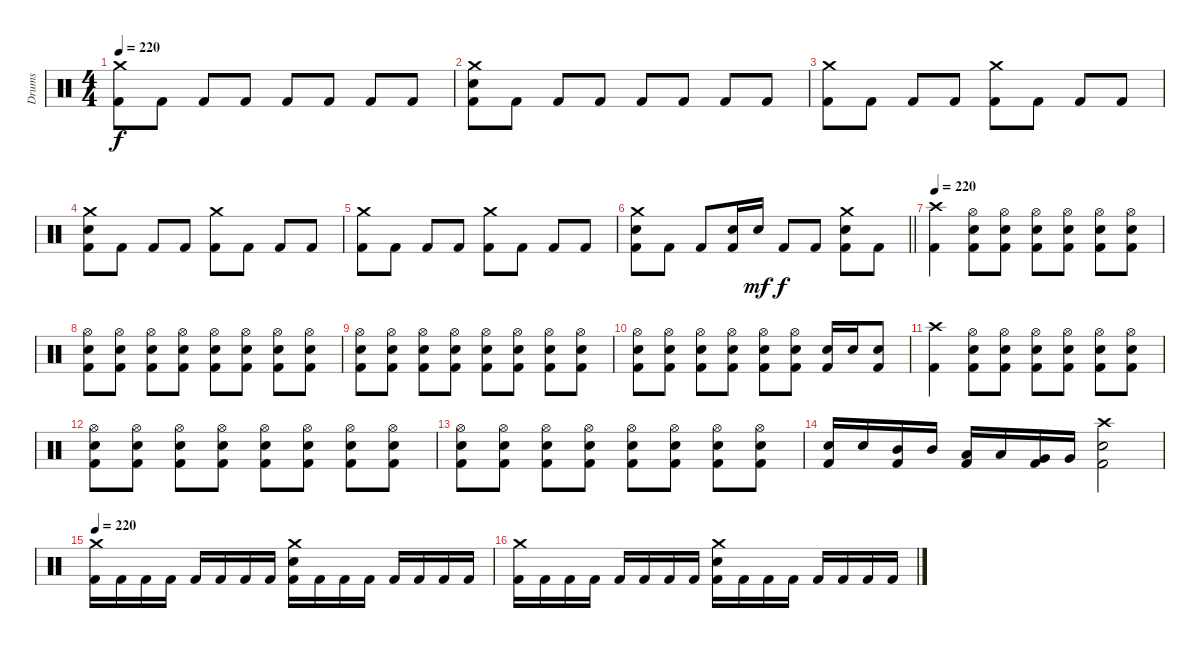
\track ("Drums" "Drums") {instrument percussion}
\staff {score}
\articulation defaults
\ts (4 4)
\tempo 220
\clef neutral
\ks c
("Crash medium (hit)" "Kick (hit) 2").8{dy f} "Kick (hit) 2".8 "Kick (hit) 2".8 "Kick (hit) 2".8 "Kick (hit) 2".8 "Kick (hit) 2".8 "Kick (hit) 2".8 "Kick (hit) 2".8 |
("Crash medium (hit)" "Electric Snare (hit)" "Kick (hit) 2").8 "Kick (hit) 2".8 "Kick (hit) 2".8 "Kick (hit) 2".8 "Kick (hit) 2".8 "Kick (hit) 2".8 "Kick (hit) 2".8 "Kick (hit) 2".8 |
("Crash medium (hit)" "Kick (hit) 2").8 "Kick (hit) 2".8 "Kick (hit) 2".8 "Kick (hit) 2".8 ("Crash medium (hit)" "Kick (hit) 2").8 "Kick (hit) 2".8 "Kick (hit) 2".8 "Kick (hit) 2".8 |
("Crash medium (hit)" "Electric Snare (hit)" "Kick (hit) 2").8 "Kick (hit) 2".8 "Kick (hit) 2".8 "Kick (hit) 2".8 ("Crash medium (hit)" "Kick (hit) 2").8 "Kick (hit) 2".8 "Kick (hit) 2".8 "Kick (hit) 2".8 |
("Crash medium (hit)" "Kick (hit) 2").8 "Kick (hit) 2".8 "Kick (hit) 2".8 "Kick (hit) 2".8 ("Crash medium (hit)" "Kick (hit) 2").8 "Kick (hit) 2".8 "Kick (hit) 2".8 "Kick (hit) 2".8 |
\barLineRight lightlight
("Crash medium (hit)" "Electric Snare (hit)" "Kick (hit) 2").8 "Kick (hit) 2".8 "Kick (hit) 2".8 ("Electric Snare (hit)" "Kick (hit) 2").16 "Electric Snare (hit)".16{dy mf} "Kick (hit) 2".8{dy f} "Kick (hit) 2".8 ("Crash medium (hit)" "Electric Snare (hit)" "Kick (hit) 2").8 "Kick (hit) 2".8 |
\tempo 220
("Kick (hit) 2" "Crash high (hit)").4 ("Kick (hit) 2" "Hi-Hat (open)" "Electric Snare (hit)").8 ("Kick (hit) 2" "Hi-Hat (open)" "Electric Snare (hit)").8 ("Kick (hit) 2" "Hi-Hat (open)" "Electric Snare (hit)").8 ("Kick (hit) 2" "Hi-Hat (open)" "Electric Snare (hit)").8 ("Kick (hit) 2" "Hi-Hat (open)" "Electric Snare (hit)").8 ("Kick (hit) 2" "Hi-Hat (open)" "Electric Snare (hit)").8 |
("Kick (hit) 2" "Hi-Hat (open)" "Electric Snare (hit)").8 ("Kick (hit) 2" "Hi-Hat (open)" "Electric Snare (hit)").8 ("Kick (hit) 2" "Hi-Hat (open)" "Electric Snare (hit)").8 ("Kick (hit) 2" "Hi-Hat (open)" "Electric Snare (hit)").8 ("Kick (hit) 2" "Hi-Hat (open)" "Electric Snare (hit)").8 ("Kick (hit) 2" "Hi-Hat (open)" "Electric Snare (hit)").8 ("Kick (hit) 2" "Hi-Hat (open)" "Electric Snare (hit)").8 ("Kick (hit) 2" "Hi-Hat (open)" "Electric Snare (hit)").8 |
("Kick (hit) 2" "Hi-Hat (open)" "Electric Snare (hit)").8 ("Kick (hit) 2" "Hi-Hat (open)" "Electric Snare (hit)").8 ("Kick (hit) 2" "Hi-Hat (open)" "Electric Snare (hit)").8 ("Kick (hit) 2" "Hi-Hat (open)" "Electric Snare (hit)").8 ("Kick (hit) 2" "Hi-Hat (open)" "Electric Snare (hit)").8 ("Kick (hit) 2" "Hi-Hat (open)" "Electric Snare (hit)").8 ("Kick (hit) 2" "Hi-Hat (open)" "Electric Snare (hit)").8 ("Kick (hit) 2" "Hi-Hat (open)" "Electric Snare (hit)").8 |
("Kick (hit) 2" "Hi-Hat (open)" "Electric Snare (hit)").8 ("Kick (hit) 2" "Hi-Hat (open)" "Electric Snare (hit)").8 ("Kick (hit) 2" "Hi-Hat (open)" "Electric Snare (hit)").8 ("Kick (hit) 2" "Hi-Hat (open)" "Electric Snare (hit)").8 ("Kick (hit) 2" "Hi-Hat (open)" "Electric Snare (hit)").8 ("Kick (hit) 2" "Hi-Hat (open)" "Electric Snare (hit)").8 ("Electric Snare (hit)" "Kick (hit) 2").16 "Electric Snare (hit)".16 ("Electric Snare (hit)" "Kick (hit) 2").8 |
("Kick (hit) 2" "Crash high (hit)").4 ("Kick (hit) 2" "Hi-Hat (open)" "Electric Snare (hit)").8 ("Kick (hit) 2" "Hi-Hat (open)" "Electric Snare (hit)").8 ("Kick (hit) 2" "Hi-Hat (open)" "Electric Snare (hit)").8 ("Kick (hit) 2" "Hi-Hat (open)" "Electric Snare (hit)").8 ("Kick (hit) 2" "Hi-Hat (open)" "Electric Snare (hit)").8 ("Kick (hit) 2" "Hi-Hat (open)" "Electric Snare (hit)").8 |
("Kick (hit) 2" "Hi-Hat (open)" "Electric Snare (hit)").8 ("Kick (hit) 2" "Hi-Hat (open)" "Electric Snare (hit)").8 ("Kick (hit) 2" "Hi-Hat (open)" "Electric Snare (hit)").8 ("Kick (hit) 2" "Hi-Hat (open)" "Electric Snare (hit)").8 ("Kick (hit) 2" "Hi-Hat (open)" "Electric Snare (hit)").8 ("Kick (hit) 2" "Hi-Hat (open)" "Electric Snare (hit)").8 ("Kick (hit) 2" "Hi-Hat (open)" "Electric Snare (hit)").8 ("Kick (hit) 2" "Hi-Hat (open)" "Electric Snare (hit)").8 |
("Kick (hit) 2" "Hi-Hat (open)" "Electric Snare (hit)").8 ("Kick (hit) 2" "Hi-Hat (open)" "Electric Snare (hit)").8 ("Kick (hit) 2" "Hi-Hat (open)" "Electric Snare (hit)").8 ("Kick (hit) 2" "Hi-Hat (open)" "Electric Snare (hit)").8 ("Kick (hit) 2" "Hi-Hat (open)" "Electric Snare (hit)").8 ("Kick (hit) 2" "Hi-Hat (open)" "Electric Snare (hit)").8 ("Kick (hit) 2" "Hi-Hat (open)" "Electric Snare (hit)").8 ("Kick (hit) 2" "Hi-Hat (open)" "Electric Snare (hit)").8 |
("Electric Snare (hit)" "Kick (hit) 2").16 "Electric Snare (hit)".16 ("Mid Tom (hit)" "Kick (hit) 2").16 "Mid Tom (hit)".16 ("Low Tom (hit)" "Kick (hit) 2").16 "Low Tom (hit)".16 ("Very Low Tom (hit)" "Kick (hit) 2").16 "Very Low Tom (hit)".16 ("Electric Snare (hit)" "Kick (hit) 2" "Crash high (hit)").2 |
\tempo 220
("Kick (hit) 2" "Crash medium (hit)").16 "Kick (hit) 2".16 "Kick (hit) 2".16 "Kick (hit) 2".16 "Kick (hit) 2".16 "Kick (hit) 2".16 "Kick (hit) 2".16 "Kick (hit) 2".16 ("Kick (hit) 2" "Crash medium (hit)" "Electric Snare (hit)").16 "Kick (hit) 2".16 "Kick (hit) 2".16 "Kick (hit) 2".16 "Kick (hit) 2".16 "Kick (hit) 2".16 "Kick (hit) 2".16 "Kick (hit) 2".16 |
("Kick (hit) 2" "Crash medium (hit)").16 "Kick (hit) 2".16 "Kick (hit) 2".16 "Kick (hit) 2".16 "Kick (hit) 2".16 "Kick (hit) 2".16 "Kick (hit) 2".16 "Kick (hit) 2".16 ("Kick (hit) 2" "Crash medium (hit)" "Electric Snare (hit)").16 "Kick (hit) 2".16 "Kick (hit) 2".16 "Kick (hit) 2".16 "Kick (hit) 2".16 "Kick (hit) 2".16 "Kick (hit) 2".16 "Kick (hit) 2".16
